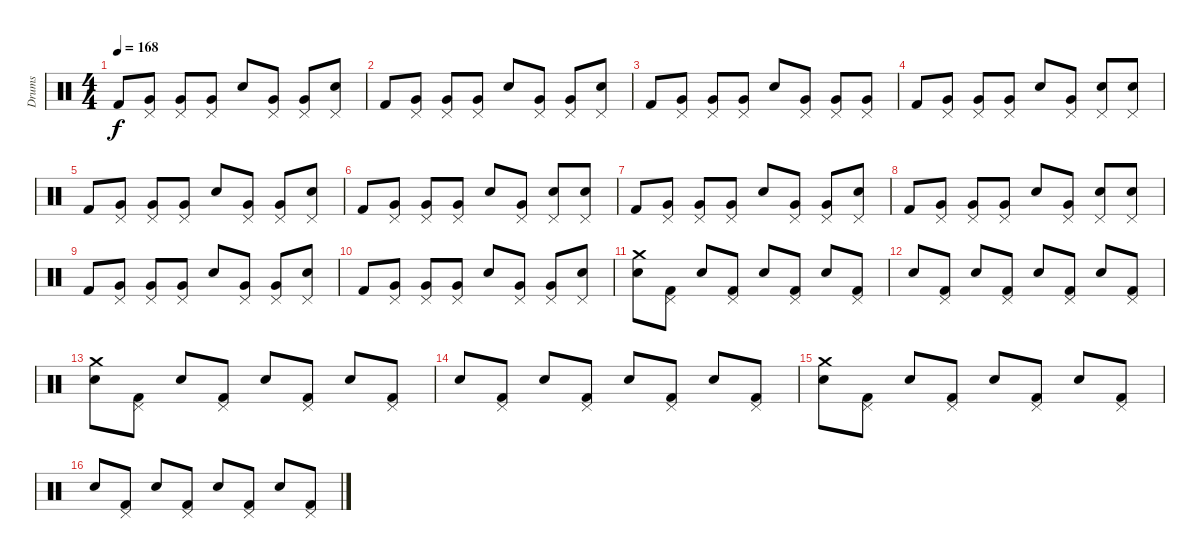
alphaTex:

\track ("Drums" "Drums") {instrument percussion}
\staff {score}
\articulation defaults
\ts (4 4)
\tempo 168
\clef neutral
\ks c "Kick (hit) 2".8{dy f}
("Pedal Hi-Hat (hit)" "Very Low Tom (hit)").8 ("Pedal Hi-Hat (hit)" "Very Low Tom (hit)").8 ("Pedal Hi-Hat (hit)" "Very Low Tom (hit)").8 "Electric Snare (hit)".8 ("Pedal Hi-Hat (hit)" "Very Low Tom (hit)").8 ("Pedal Hi-Hat (hit)" "Very Low Tom (hit)").8 ("Pedal Hi-Hat (hit)" "Electric Snare (hit)").8 |
"Kick (hit) 2".8 ("Pedal Hi-Hat (hit)" "Very Low Tom (hit)").8 ("Pedal Hi-Hat (hit)" "Very Low Tom (hit)").8 ("Pedal Hi-Hat (hit)" "Very Low Tom (hit)").8 "Electric Snare (hit)".8 ("Pedal Hi-Hat (hit)" "Very Low Tom (hit)").8 ("Pedal Hi-Hat (hit)" "Very Low Tom (hit)").8 ("Pedal Hi-Hat (hit)" "Electric Snare (hit)").8 |
"Kick (hit) 2".8 ("Pedal Hi-Hat (hit)" "Very Low Tom (hit)").8 ("Pedal Hi-Hat (hit)" "Very Low Tom (hit)").8 ("Pedal Hi-Hat (hit)" "Very Low Tom (hit)").8 "Electric Snare (hit)".8 ("Pedal Hi-Hat (hit)" "Very Low Tom (hit)").8 ("Pedal Hi-Hat (hit)" "Very Low Tom (hit)").8 ("Pedal Hi-Hat (hit)" "Very Low Tom (hit)").8 |
"Kick (hit) 2".8 ("Pedal Hi-Hat (hit)" "Very Low Tom (hit)").8 ("Pedal Hi-Hat (hit)" "Very Low Tom (hit)").8 ("Pedal Hi-Hat (hit)" "Very Low Tom (hit)").8 "Electric Snare (hit)".8 ("Pedal Hi-Hat (hit)" "Very Low Tom (hit)").8 ("Pedal Hi-Hat (hit)" "Electric Snare (hit)").8 ("Pedal Hi-Hat (hit)" "Electric Snare (hit)").8 |
"Kick (hit) 2".8 ("Pedal Hi-Hat (hit)" "Very Low Tom (hit)").8 ("Pedal Hi-Hat (hit)" "Very Low Tom (hit)").8 ("Pedal Hi-Hat (hit)" "Very Low Tom (hit)").8 "Electric Snare (hit)".8 ("Pedal Hi-Hat (hit)" "Very Low Tom (hit)").8 ("Pedal Hi-Hat (hit)" "Very Low Tom (hit)").8 ("Pedal Hi-Hat (hit)" "Electric Snare (hit)").8 |
"Kick (hit) 2".8 ("Pedal Hi-Hat (hit)" "Very Low Tom (hit)").8 ("Pedal Hi-Hat (hit)" "Very Low Tom (hit)").8 ("Pedal Hi-Hat (hit)" "Very Low Tom (hit)").8 "Electric Snare (hit)".8 ("Pedal Hi-Hat (hit)" "Very Low Tom (hit)").8 ("Pedal Hi-Hat (hit)" "Electric Snare (hit)").8 ("Pedal Hi-Hat (hit)" "Electric Snare (hit)").8 |
"Kick (hit) 2".8 ("Pedal Hi-Hat (hit)" "Very Low Tom (hit)").8 ("Pedal Hi-Hat (hit)" "Very Low Tom (hit)").8 ("Pedal Hi-Hat (hit)" "Very Low Tom (hit)").8 "Electric Snare (hit)".8 ("Pedal Hi-Hat (hit)" "Very Low Tom (hit)").8 ("Pedal Hi-Hat (hit)" "Very Low Tom (hit)").8 ("Pedal Hi-Hat (hit)" "Electric Snare (hit)").8 |
"Kick (hit) 2".8 ("Pedal Hi-Hat (hit)" "Very Low Tom (hit)").8 ("Pedal Hi-Hat (hit)" "Very Low Tom (hit)").8 ("Pedal Hi-Hat (hit)" "Very Low Tom (hit)").8 "Electric Snare (hit)".8 ("Pedal Hi-Hat (hit)" "Very Low Tom (hit)").8 ("Pedal Hi-Hat (hit)" "Electric Snare (hit)").8 ("Pedal Hi-Hat (hit)" "Electric Snare (hit)").8 |
"Kick (hit) 2".8 ("Pedal Hi-Hat (hit)" "Very Low Tom (hit)").8 ("Pedal Hi-Hat (hit)" "Very Low Tom (hit)").8 ("Pedal Hi-Hat (hit)" "Very Low Tom (hit)").8 "Electric Snare (hit)".8 ("Pedal Hi-Hat (hit)" "Very Low Tom (hit)").8 ("Pedal Hi-Hat (hit)" "Very Low Tom (hit)").8 ("Pedal Hi-Hat (hit)" "Electric Snare (hit)").8 |
"Kick (hit) 2".8 ("Pedal Hi-Hat (hit)" "Very Low Tom (hit)").8 ("Pedal Hi-Hat (hit)" "Very Low Tom (hit)").8 ("Pedal Hi-Hat (hit)" "Very Low Tom (hit)").8 "Electric Snare (hit)".8 ("Pedal Hi-Hat (hit)" "Very Low Tom (hit)").8 ("Pedal Hi-Hat (hit)" "Very Low Tom (hit)").8 ("Pedal Hi-Hat (hit)" "Electric Snare (hit)").8 |
("Crash medium (hit)" "Electric Snare (hit)").8 ("Pedal Hi-Hat (hit)" "Kick (hit) 2").8 "Electric Snare (hit)".8 ("Pedal Hi-Hat (hit)" "Kick (hit) 2").8 "Electric Snare (hit)".8 ("Pedal Hi-Hat (hit)" "Kick (hit) 2").8 "Electric Snare (hit)".8 ("Pedal Hi-Hat (hit)" "Kick (hit) 2").8 |
"Electric Snare (hit)".8 ("Pedal Hi-Hat (hit)" "Kick (hit) 2").8 "Electric Snare (hit)".8 ("Pedal Hi-Hat (hit)" "Kick (hit) 2").8 "Electric Snare (hit)".8 ("Pedal Hi-Hat (hit)" "Kick (hit) 2").8 "Electric Snare (hit)".8 ("Pedal Hi-Hat (hit)" "Kick (hit) 2").8 |
("Crash medium (hit)" "Electric Snare (hit)").8 ("Pedal Hi-Hat (hit)" "Kick (hit) 2").8 "Electric Snare (hit)".8 ("Pedal Hi-Hat (hit)" "Kick (hit) 2").8 "Electric Snare (hit)".8 ("Pedal Hi-Hat (hit)" "Kick (hit) 2").8 "Electric Snare (hit)".8 ("Pedal Hi-Hat (hit)" "Kick (hit) 2").8 |
"Electric Snare (hit)".8 ("Pedal Hi-Hat (hit)" "Kick (hit) 2").8 "Electric Snare (hit)".8 ("Pedal Hi-Hat (hit)" "Kick (hit) 2").8 "Electric Snare (hit)".8 ("Pedal Hi-Hat (hit)" "Kick (hit) 2").8 "Electric Snare (hit)".8 ("Pedal Hi-Hat (hit)" "Kick (hit) 2").8 |
("Crash medium (hit)" "Electric Snare (hit)").8 ("Pedal Hi-Hat (hit)" "Kick (hit) 2").8 "Electric Snare (hit)".8 ("Pedal Hi-Hat (hit)" "Kick (hit) 2").8 "Electric Snare (hit)".8 ("Pedal Hi-Hat (hit)" "Kick (hit) 2").8 "Electric Snare (hit)".8 ("Pedal Hi-Hat (hit)" "Kick (hit) 2").8 |
"Electric Snare (hit)".8 ("Pedal Hi-Hat (hit)" "Kick (hit) 2").8 "Electric Snare (hit)".8 ("Pedal Hi-Hat (hit)" "Kick (hit) 2").8 "Electric Snare (hit)".8 ("Pedal Hi-Hat (hit)" "Kick (hit) 2").8 "Electric Snare (hit)".8 ("Pedal Hi-Hat (hit)" "Kick (hit) 2").8
